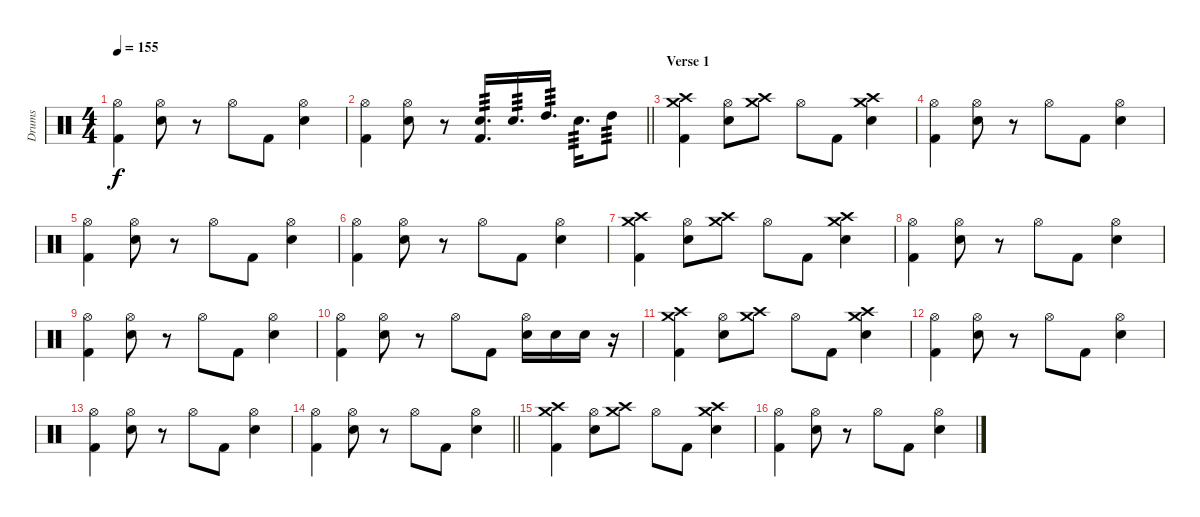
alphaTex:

\track ("Drums" "Drums") {instrument percussion}
\staff {score}
\articulation defaults
\ts (4 4)
\tempo 155
\clef neutral
\ks c
("Hi-Hat (open)" "Kick (hit) 2").4{dy f} ("Hi-Hat (open)" "Electric Snare (hit)").8 r.8 "Hi-Hat (open)".8 "Kick (hit) 2".8 ("Hi-Hat (open)" "Electric Snare (hit)").4 |
\barLineRight lightlight
("Hi-Hat (open)" "Kick (hit) 2").4 ("Hi-Hat (open)" "Electric Snare (hit)").8 r.8 ("Snare (hit) 2" "Kick (hit) 2").16{d tp 3} "Electric Snare (hit)".16{d tp 3} "High Tom (hit)".16{d tp 3} "Electric Snare (hit)".16{d tp 3} "High Tom (hit)".8{tp 3} |
\section ("" "Verse 1")
("Crash high (hit)" "Crash medium (hit)" "Kick (hit) 2").4 ("Hi-Hat (open)" "Electric Snare (hit)").8 ("Crash high (hit)" "Crash medium (hit)").8 "Hi-Hat (open)".8 "Kick (hit) 2".8 ("Crash high (hit)" "Crash medium (hit)" "Electric Snare (hit)").4 |
("Hi-Hat (open)" "Kick (hit) 2").4 ("Hi-Hat (open)" "Electric Snare (hit)").8 r.8 "Hi-Hat (open)".8 "Kick (hit) 2".8 ("Hi-Hat (open)" "Electric Snare (hit)").4 |
("Hi-Hat (open)" "Kick (hit) 2").4 ("Hi-Hat (open)" "Electric Snare (hit)").8 r.8 "Hi-Hat (open)".8 "Kick (hit) 2".8 ("Hi-Hat (open)" "Electric Snare (hit)").4 |
("Hi-Hat (open)" "Kick (hit) 2").4 ("Hi-Hat (open)" "Electric Snare (hit)").8 r.8 "Hi-Hat (open)".8 "Kick (hit) 2".8 ("Hi-Hat (open)" "Electric Snare (hit)").4 |
("Crash high (hit)" "Crash medium (hit)" "Kick (hit) 2").4 ("Hi-Hat (open)" "Electric Snare (hit)").8 ("Crash high (hit)" "Crash medium (hit)").8 "Hi-Hat (open)".8 "Kick (hit) 2".8 ("Crash high (hit)" "Crash medium (hit)" "Electric Snare (hit)").4 |
("Hi-Hat (open)" "Kick (hit) 2").4 ("Hi-Hat (open)" "Electric Snare (hit)").8 r.8 "Hi-Hat (open)".8 "Kick (hit) 2".8 ("Hi-Hat (open)" "Electric Snare (hit)").4 |
("Hi-Hat (open)" "Kick (hit) 2").4 ("Hi-Hat (open)" "Electric Snare (hit)").8 r.8 "Hi-Hat (open)".8 "Kick (hit) 2".8 ("Hi-Hat (open)" "Electric Snare (hit)").4 |
("Hi-Hat (open)" "Kick (hit) 2").4 ("Hi-Hat (open)" "Electric Snare (hit)").8 r.8 "Hi-Hat (open)".8 "Kick (hit) 2".8 ("Hi-Hat (open)" "Electric Snare (hit)").16 "Electric Snare (hit)".16 "Electric Snare (hit)".16 r.16 |
("Crash high (hit)" "Crash medium (hit)" "Kick (hit) 2").4 ("Hi-Hat (open)" "Electric Snare (hit)").8 ("Crash high (hit)" "Crash medium (hit)").8 "Hi-Hat (open)".8 "Kick (hit) 2".8 ("Crash high (hit)" "Crash medium (hit)" "Electric Snare (hit)").4 |
("Hi-Hat (open)" "Kick (hit) 2").4 ("Hi-Hat (open)" "Electric Snare (hit)").8 r.8 "Hi-Hat (open)".8 "Kick (hit) 2".8 ("Hi-Hat (open)" "Electric Snare (hit)").4 |
("Hi-Hat (open)" "Kick (hit) 2").4 ("Hi-Hat (open)" "Electric Snare (hit)").8 r.8 "Hi-Hat (open)".8 "Kick (hit) 2".8 ("Hi-Hat (open)" "Electric Snare (hit)").4 |
\barLineRight lightlight
("Hi-Hat (open)" "Kick (hit) 2").4 ("Hi-Hat (open)" "Electric Snare (hit)").8 r.8 "Hi-Hat (open)".8 "Kick (hit) 2".8 ("Hi-Hat (open)" "Electric Snare (hit)").4 |
("Crash high (hit)" "Crash medium (hit)" "Kick (hit) 2").4 ("Hi-Hat (open)" "Electric Snare (hit)").8 ("Crash high (hit)" "Crash medium (hit)").8 "Hi-Hat (open)".8 "Kick (hit) 2".8 ("Crash high (hit)" "Crash medium (hit)" "Electric Snare (hit)").4 |
("Hi-Hat (open)" "Kick (hit) 2").4 ("Hi-Hat (open)" "Electric Snare (hit)").8 r.8 "Hi-Hat (open)".8 "Kick (hit) 2".8 ("Hi-Hat (open)" "Electric Snare (hit)").4
